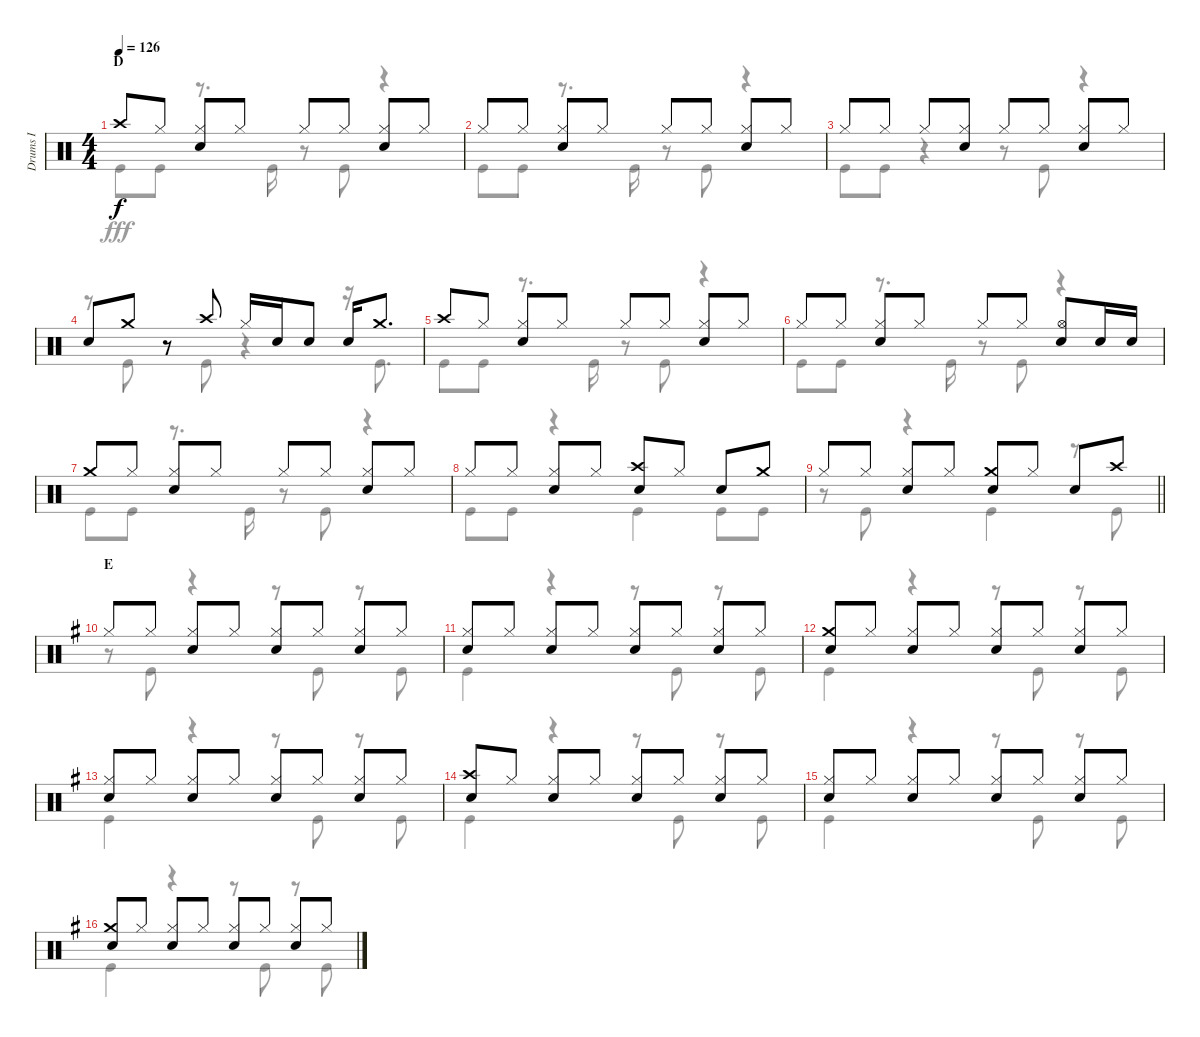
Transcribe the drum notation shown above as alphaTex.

\track ("Drums I" "Drums I") {instrument percussion}
\staff {score}
\articulation defaults
\voice
\ts (4 4)
\section ("" "D")
\tempo 126
\clef neutral
\ks c "Crash high (hit)".8{dy f} "Hi-Hat (closed)".8
("Hi-Hat (closed)" "Snare (hit) 2").8 "Hi-Hat (closed)".8 "Hi-Hat (closed)".8 "Hi-Hat (closed)".8 ("Hi-Hat (closed)" "Snare (hit) 2").8 "Hi-Hat (closed)".8 |
"Hi-Hat (closed)".8 "Hi-Hat (closed)".8 ("Hi-Hat (closed)" "Snare (hit) 2").8 "Hi-Hat (closed)".8 "Hi-Hat (closed)".8 "Hi-Hat (closed)".8 ("Hi-Hat (closed)" "Snare (hit) 2").8 "Hi-Hat (closed)".8 |
"Hi-Hat (closed)".8 "Hi-Hat (closed)".8 "Hi-Hat (closed)".8 ("Hi-Hat (closed)" "Snare (hit) 2").8 "Hi-Hat (closed)".8 "Hi-Hat (closed)".8 ("Hi-Hat (closed)" "Snare (hit) 2").8 "Hi-Hat (closed)".8 |
"Snare (hit) 2".8 "Crash medium (hit)".8 r.8 "Crash high (hit)".8 "Hi-Hat (closed)".16 "Snare (hit) 2".16 "Snare (hit) 2".8 "Snare (hit) 2".16 "Crash medium (hit)".8{d} |
"Crash high (hit)".8 "Hi-Hat (closed)".8 ("Hi-Hat (closed)" "Snare (hit) 2").8 "Hi-Hat (closed)".8 "Hi-Hat (closed)".8 "Hi-Hat (closed)".8 ("Hi-Hat (closed)" "Snare (hit) 2").8 "Hi-Hat (closed)".8 |
"Hi-Hat (closed)".8 "Hi-Hat (closed)".8 ("Hi-Hat (closed)" "Snare (hit) 2").8 "Hi-Hat (closed)".8 "Hi-Hat (closed)".8 "Hi-Hat (closed)".8 ("Hi-Hat (open)" "Snare (hit) 2").8 "Snare (hit) 2".16 "Snare (hit) 2".16 |
"Crash medium (hit)".8 "Hi-Hat (closed)".8 ("Hi-Hat (closed)" "Snare (hit) 2").8 "Hi-Hat (closed)".8 "Hi-Hat (closed)".8 "Hi-Hat (closed)".8 ("Hi-Hat (closed)" "Snare (hit) 2").8 "Hi-Hat (closed)".8 |
"Hi-Hat (closed)".8 "Hi-Hat (closed)".8 ("Hi-Hat (closed)" "Snare (hit) 2").8 "Hi-Hat (closed)".8 ("Crash high (hit)" "Snare (hit) 2").8 "Hi-Hat (closed)".8 "Snare (hit) 2".8 "Crash medium (hit)".8 |
\barLineRight lightlight "Hi-Hat (closed)".8 "Hi-Hat (closed)".8
("Hi-Hat (closed)" "Snare (hit) 2").8 "Hi-Hat (closed)".8 ("Crash medium (hit)" "Snare (hit) 2").8 "Hi-Hat (closed)".8 "Snare (hit) 2".8 "Crash high (hit)".8 |
\section ("" "E")
\ks g "Hi-Hat (closed)".8 "Hi-Hat (closed)".8
("Hi-Hat (closed)" "Snare (hit) 2").8 "Hi-Hat (closed)".8 ("Hi-Hat (closed)" "Snare (hit) 2").8 "Hi-Hat (closed)".8 ("Hi-Hat (closed)" "Snare (hit) 2").8 "Hi-Hat (closed)".8 |
("Hi-Hat (closed)" "Snare (hit) 2").8 "Hi-Hat (closed)".8 ("Hi-Hat (closed)" "Snare (hit) 2").8 "Hi-Hat (closed)".8 ("Hi-Hat (closed)" "Snare (hit) 2").8 "Hi-Hat (closed)".8 ("Hi-Hat (closed)" "Snare (hit) 2").8 "Hi-Hat (closed)".8 |
("Crash medium (hit)" "Snare (hit) 2").8 "Hi-Hat (closed)".8 ("Hi-Hat (closed)" "Snare (hit) 2").8 "Hi-Hat (closed)".8 ("Hi-Hat (closed)" "Snare (hit) 2").8 "Hi-Hat (closed)".8 ("Hi-Hat (closed)" "Snare (hit) 2").8 "Hi-Hat (closed)".8 |
("Hi-Hat (closed)" "Snare (hit) 2").8 "Hi-Hat (closed)".8 ("Hi-Hat (closed)" "Snare (hit) 2").8 "Hi-Hat (closed)".8 ("Hi-Hat (closed)" "Snare (hit) 2").8 "Hi-Hat (closed)".8 ("Hi-Hat (closed)" "Snare (hit) 2").8 "Hi-Hat (closed)".8 |
("Crash high (hit)" "Snare (hit) 2").8 "Hi-Hat (closed)".8 ("Hi-Hat (closed)" "Snare (hit) 2").8 "Hi-Hat (closed)".8 ("Hi-Hat (closed)" "Snare (hit) 2").8 "Hi-Hat (closed)".8 ("Hi-Hat (closed)" "Snare (hit) 2").8 "Hi-Hat (closed)".8 |
("Hi-Hat (closed)" "Snare (hit) 2").8 "Hi-Hat (closed)".8 ("Hi-Hat (closed)" "Snare (hit) 2").8 "Hi-Hat (closed)".8 ("Hi-Hat (closed)" "Snare (hit) 2").8 "Hi-Hat (closed)".8 ("Hi-Hat (closed)" "Snare (hit) 2").8 "Hi-Hat (closed)".8 |
("Crash medium (hit)" "Snare (hit) 2").8 "Hi-Hat (closed)".8 ("Hi-Hat (closed)" "Snare (hit) 2").8 "Hi-Hat (closed)".8 ("Hi-Hat (closed)" "Snare (hit) 2").8 "Hi-Hat (closed)".8 ("Hi-Hat (closed)" "Snare (hit) 2").8 "Hi-Hat (closed)".8
\voice
\clef neutral
\ottava regular
\simile none
\ks c "Kick (hit)".8{dy fff} "Kick (hit)".8
r.8{d} "Kick (hit)".16 r.8 "Kick (hit)".8 r.4 |
"Kick (hit)".8 "Kick (hit)".8 r.8{d} "Kick (hit)".16 r.8 "Kick (hit)".8 r.4 |
"Kick (hit)".8 "Kick (hit)".8 r.4 r.8 "Kick (hit)".8 r.4 |
r.8 "Kick (hit)".8 r.8 "Kick (hit)".8 r.4 r.16 "Kick (hit)".8{d} |
"Kick (hit)".8 "Kick (hit)".8 r.8{d} "Kick (hit)".16 r.8 "Kick (hit)".8 r.4 |
"Kick (hit)".8 "Kick (hit)".8 r.8{d} "Kick (hit)".16 r.8 "Kick (hit)".8 r.4 |
"Kick (hit)".8 "Kick (hit)".8 r.8{d} "Kick (hit)".16 r.8 "Kick (hit)".8 r.4 |
"Kick (hit)".8 "Kick (hit)".8 r.4 "Kick (hit)".4 "Kick (hit)".8 "Kick (hit)".8 |
\barLineRight lightlight
r.8 "Kick (hit)".8 r.4 "Kick (hit)".4 r.8 "Kick (hit)".8 |
\ks g
r.8 "Kick (hit)".8 r.4 r.8 "Kick (hit)".8 r.8 "Kick (hit)".8 |
"Kick (hit)".4 r.4 r.8 "Kick (hit)".8 r.8 "Kick (hit)".8 |
"Kick (hit)".4 r.4 r.8 "Kick (hit)".8 r.8 "Kick (hit)".8 |
"Kick (hit)".4 r.4 r.8 "Kick (hit)".8 r.8 "Kick (hit)".8 |
"Kick (hit)".4 r.4 r.8 "Kick (hit)".8 r.8 "Kick (hit)".8 |
"Kick (hit)".4 r.4 r.8 "Kick (hit)".8 r.8 "Kick (hit)".8 |
"Kick (hit)".4 r.4 r.8 "Kick (hit)".8 r.8 "Kick (hit)".8
